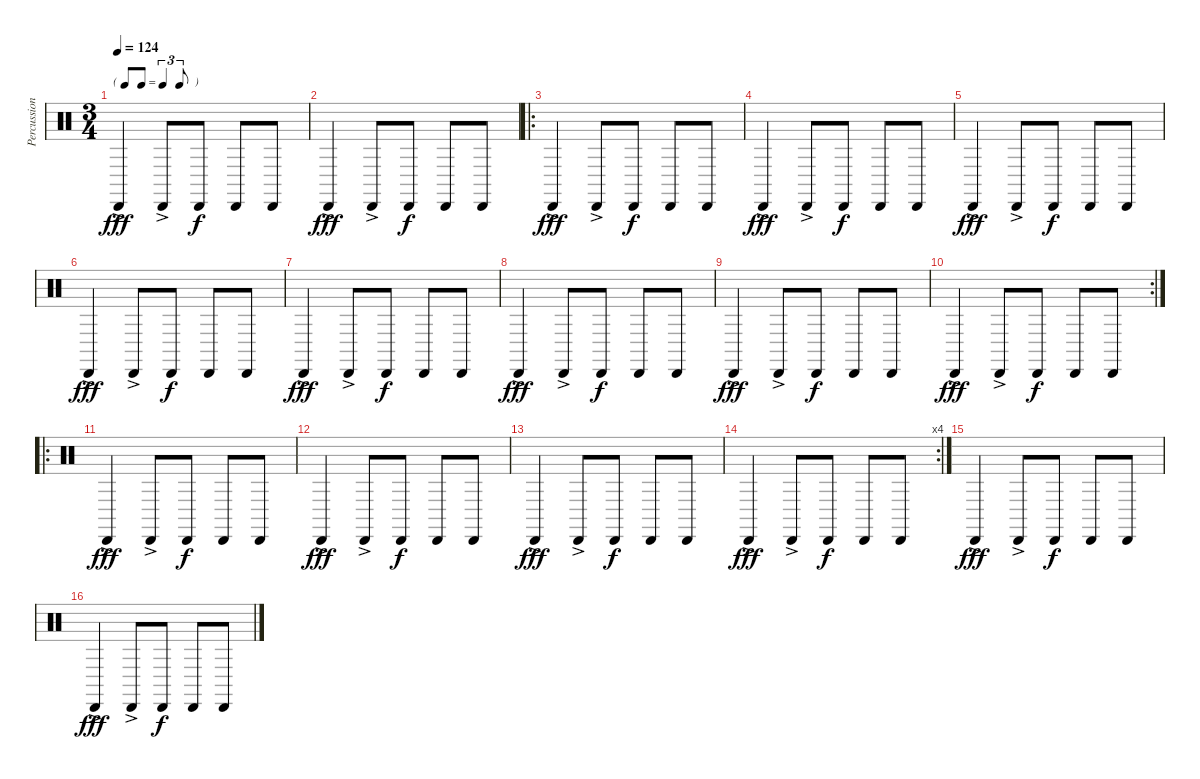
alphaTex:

\track ("Percussion" "Percussion") {instrument percussion}
\staff {score}
\articulation defaults
\ts (3 4)
\tf triplet8th
\tempo 124
\clef neutral
\ks c "Cabasa (hit)"{ac}.4{dy fff} "Cabasa (hit)"{ac}.8 "Cabasa (hit)".8{dy f} "Cabasa (hit)".8 "Cabasa (hit)".8
|
"Cabasa (hit)"{ac}.4{dy fff} "Cabasa (hit)"{ac}.8 "Cabasa (hit)".8{dy f} "Cabasa (hit)".8 "Cabasa (hit)".8 |
\ro "Cabasa (hit)"{ac}.4{dy fff} "Cabasa (hit)"{ac}.8 "Cabasa (hit)".8{dy f} "Cabasa (hit)".8 "Cabasa (hit)".8
|
"Cabasa (hit)"{ac}.4{dy fff} "Cabasa (hit)"{ac}.8 "Cabasa (hit)".8{dy f} "Cabasa (hit)".8 "Cabasa (hit)".8 |
"Cabasa (hit)"{ac}.4{dy fff} "Cabasa (hit)"{ac}.8 "Cabasa (hit)".8{dy f} "Cabasa (hit)".8 "Cabasa (hit)".8 |
"Cabasa (hit)"{ac}.4{dy fff} "Cabasa (hit)"{ac}.8 "Cabasa (hit)".8{dy f} "Cabasa (hit)".8 "Cabasa (hit)".8 |
"Cabasa (hit)"{ac}.4{dy fff} "Cabasa (hit)"{ac}.8 "Cabasa (hit)".8{dy f} "Cabasa (hit)".8 "Cabasa (hit)".8 |
"Cabasa (hit)"{ac}.4{dy fff} "Cabasa (hit)"{ac}.8 "Cabasa (hit)".8{dy f} "Cabasa (hit)".8 "Cabasa (hit)".8 |
"Cabasa (hit)"{ac}.4{dy fff} "Cabasa (hit)"{ac}.8 "Cabasa (hit)".8{dy f} "Cabasa (hit)".8 "Cabasa (hit)".8 |
\rc 2 "Cabasa (hit)"{ac}.4{dy fff} "Cabasa (hit)"{ac}.8 "Cabasa (hit)".8{dy f} "Cabasa (hit)".8 "Cabasa (hit)".8
|
\ro "Cabasa (hit)"{ac}.4{dy fff} "Cabasa (hit)"{ac}.8 "Cabasa (hit)".8{dy f} "Cabasa (hit)".8 "Cabasa (hit)".8
|
"Cabasa (hit)"{ac}.4{dy fff} "Cabasa (hit)"{ac}.8 "Cabasa (hit)".8{dy f} "Cabasa (hit)".8 "Cabasa (hit)".8 |
"Cabasa (hit)"{ac}.4{dy fff} "Cabasa (hit)"{ac}.8 "Cabasa (hit)".8{dy f} "Cabasa (hit)".8 "Cabasa (hit)".8 |
\rc 4 "Cabasa (hit)"{ac}.4{dy fff} "Cabasa (hit)"{ac}.8 "Cabasa (hit)".8{dy f} "Cabasa (hit)".8 "Cabasa (hit)".8
|
"Cabasa (hit)"{ac}.4{dy fff} "Cabasa (hit)"{ac}.8 "Cabasa (hit)".8{dy f} "Cabasa (hit)".8 "Cabasa (hit)".8 |
"Cabasa (hit)"{ac}.4{dy fff} "Cabasa (hit)"{ac}.8 "Cabasa (hit)".8{dy f} "Cabasa (hit)".8 "Cabasa (hit)".8
